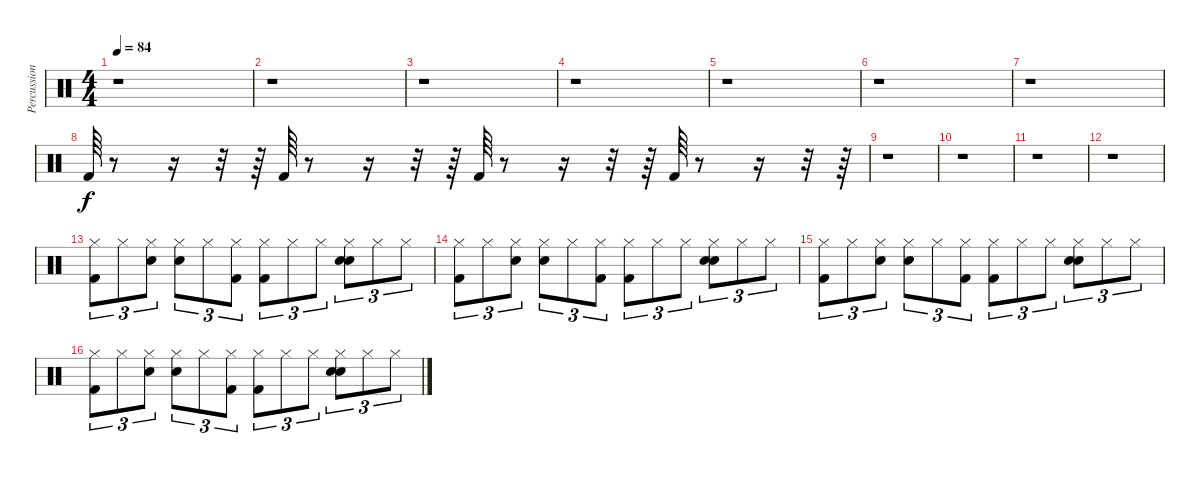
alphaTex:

\track ("Percussion" "Percussion") {instrument percussion}
\staff {score}
\articulation defaults
\ts (4 4)
\tempo 84
\clef neutral
\ks c
r.1{dy f} |
r.1 |
r.1 |
r.1 |
r.1 |
r.1 |
r.1 |
"Kick (hit) 2".64 r.8 r.16 r.32 r.64 "Kick (hit) 2".64 r.8 r.16 r.32 r.64 "Kick (hit) 2".64 r.8 r.16 r.32 r.64 "Kick (hit) 2".64 r.8 r.16 r.32 r.64 |
r.1 |
r.1 |
r.1 |
r.1 |
("Hi-Hat (closed)" "Kick (hit) 2").8{tu (3 2)} "Hi-Hat (closed)".8{tu (3 2)} ("Hi-Hat (closed)" "Electric Snare (hit)").8{tu (3 2)} ("Hi-Hat (closed)" "Hand Clap (hit)").8{tu (3 2)} "Hi-Hat (closed)".8{tu (3 2)} ("Hi-Hat (closed)" "Kick (hit) 2").8{tu (3 2)} ("Hi-Hat (closed)" "Kick (hit) 2").8{tu (3 2)} "Hi-Hat (closed)".8{tu (3 2)} "Hi-Hat (closed)".8{tu (3 2)} ("Hi-Hat (closed)" "Electric Snare (hit)" "Hand Clap (hit)").8{tu (3 2)} "Hi-Hat (closed)".8{tu (3 2)} "Hi-Hat (closed)".8{tu (3 2)} |
("Hi-Hat (closed)" "Kick (hit) 2").8{tu (3 2)} "Hi-Hat (closed)".8{tu (3 2)} ("Hi-Hat (closed)" "Electric Snare (hit)").8{tu (3 2)} ("Hi-Hat (closed)" "Hand Clap (hit)").8{tu (3 2)} "Hi-Hat (closed)".8{tu (3 2)} ("Hi-Hat (closed)" "Kick (hit) 2").8{tu (3 2)} ("Hi-Hat (closed)" "Kick (hit) 2").8{tu (3 2)} "Hi-Hat (closed)".8{tu (3 2)} "Hi-Hat (closed)".8{tu (3 2)} ("Hi-Hat (closed)" "Electric Snare (hit)" "Hand Clap (hit)").8{tu (3 2)} "Hi-Hat (closed)".8{tu (3 2)} "Hi-Hat (closed)".8{tu (3 2)} |
("Hi-Hat (closed)" "Kick (hit) 2").8{tu (3 2)} "Hi-Hat (closed)".8{tu (3 2)} ("Hi-Hat (closed)" "Electric Snare (hit)").8{tu (3 2)} ("Hi-Hat (closed)" "Hand Clap (hit)").8{tu (3 2)} "Hi-Hat (closed)".8{tu (3 2)} ("Hi-Hat (closed)" "Kick (hit) 2").8{tu (3 2)} ("Hi-Hat (closed)" "Kick (hit) 2").8{tu (3 2)} "Hi-Hat (closed)".8{tu (3 2)} "Hi-Hat (closed)".8{tu (3 2)} ("Hi-Hat (closed)" "Electric Snare (hit)" "Hand Clap (hit)").8{tu (3 2)} "Hi-Hat (closed)".8{tu (3 2)} "Hi-Hat (closed)".8{tu (3 2)} |
("Hi-Hat (closed)" "Kick (hit) 2").8{tu (3 2)} "Hi-Hat (closed)".8{tu (3 2)} ("Hi-Hat (closed)" "Electric Snare (hit)").8{tu (3 2)} ("Hi-Hat (closed)" "Hand Clap (hit)").8{tu (3 2)} "Hi-Hat (closed)".8{tu (3 2)} ("Hi-Hat (closed)" "Kick (hit) 2").8{tu (3 2)} ("Hi-Hat (closed)" "Kick (hit) 2").8{tu (3 2)} "Hi-Hat (closed)".8{tu (3 2)} "Hi-Hat (closed)".8{tu (3 2)} ("Hi-Hat (closed)" "Electric Snare (hit)" "Hand Clap (hit)").8{tu (3 2)} "Hi-Hat (closed)".8{tu (3 2)} "Hi-Hat (closed)".8{tu (3 2)}
